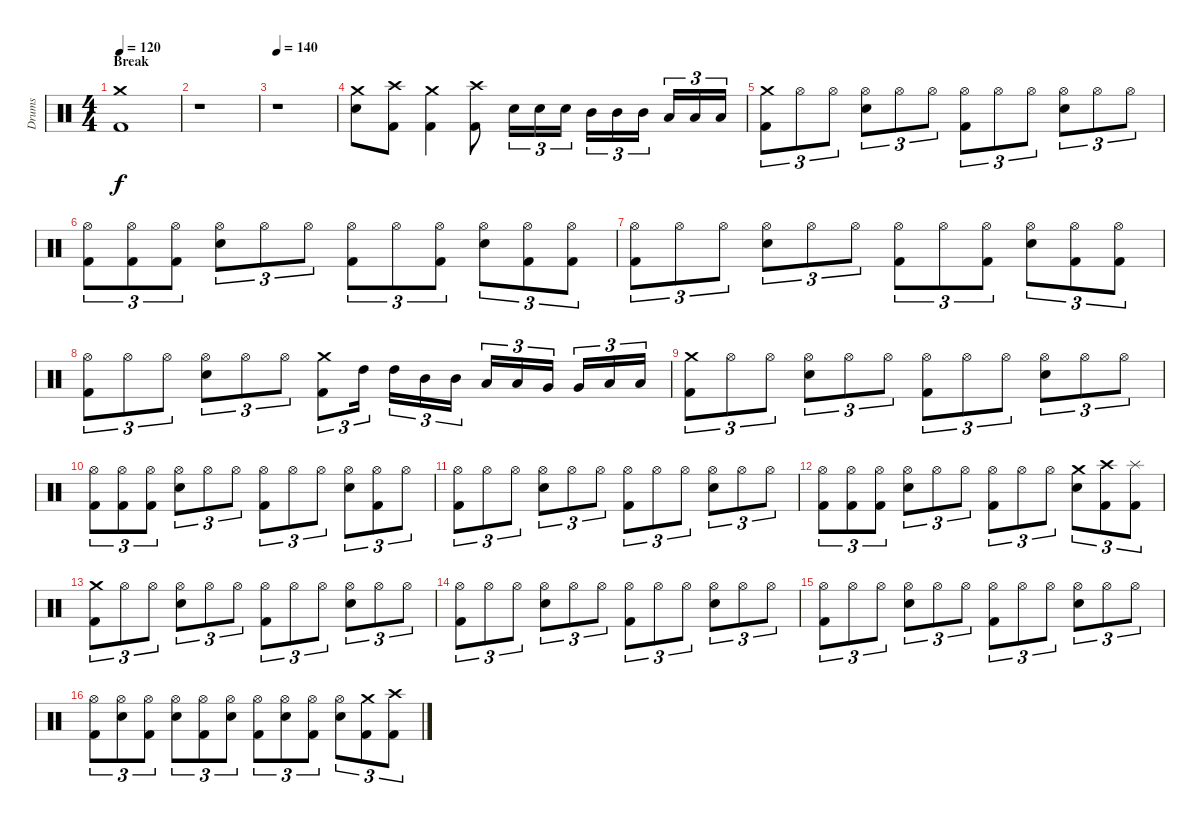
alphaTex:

\track ("Drums" "Drums") {instrument percussion}
\staff {score}
\articulation defaults
\ts (4 4)
\section ("" "Break")
\tempo 120
\clef neutral
\ks c
("Kick (hit) 2" "Crash medium (hit)").1{dy f} |
r.1 |
\tempo 140
r.1 |
("Electric Snare (hit)" "Crash medium (hit)").8 ("Kick (hit) 2" "Crash high (hit)").8 ("Kick (hit) 2" "Crash medium (hit)").4 ("Kick (hit) 2" "Crash high (hit)").8 "Electric Snare (hit)".16{tu (3 2)} "Electric Snare (hit)".16{tu (3 2)} "Electric Snare (hit)".16{tu (3 2)} "Mid Tom (hit)".16{tu (3 2)} "Mid Tom (hit)".16{tu (3 2)} "Mid Tom (hit)".16{tu (3 2)} "Low Tom (hit)".16{tu (3 2)} "Low Tom (hit)".16{tu (3 2)} "Low Tom (hit)".16{tu (3 2)} |
("Kick (hit) 2" "Crash medium (hit)").8{tu (3 2)} "Hi-Hat (open)".8{tu (3 2)} "Hi-Hat (open)".8{tu (3 2)} ("Electric Snare (hit)" "Hi-Hat (open)").8{tu (3 2)} "Hi-Hat (open)".8{tu (3 2)} "Hi-Hat (open)".8{tu (3 2)} ("Kick (hit) 2" "Hi-Hat (open)").8{tu (3 2)} "Hi-Hat (open)".8{tu (3 2)} "Hi-Hat (open)".8{tu (3 2)} ("Electric Snare (hit)" "Hi-Hat (open)").8{tu (3 2)} "Hi-Hat (open)".8{tu (3 2)} "Hi-Hat (open)".8{tu (3 2)} |
("Kick (hit) 2" "Hi-Hat (open)").8{tu (3 2)} ("Kick (hit) 2" "Hi-Hat (open)").8{tu (3 2)} ("Kick (hit) 2" "Hi-Hat (open)").8{tu (3 2)} ("Electric Snare (hit)" "Hi-Hat (open)").8{tu (3 2)} "Hi-Hat (open)".8{tu (3 2)} "Hi-Hat (open)".8{tu (3 2)} ("Kick (hit) 2" "Hi-Hat (open)").8{tu (3 2)} "Hi-Hat (open)".8{tu (3 2)} ("Kick (hit) 2" "Hi-Hat (open)").8{tu (3 2)} ("Electric Snare (hit)" "Hi-Hat (open)").8{tu (3 2)} ("Kick (hit) 2" "Hi-Hat (open)").8{tu (3 2)} ("Kick (hit) 2" "Hi-Hat (open)").8{tu (3 2)} |
("Kick (hit) 2" "Hi-Hat (open)").8{tu (3 2)} "Hi-Hat (open)".8{tu (3 2)} "Hi-Hat (open)".8{tu (3 2)} ("Electric Snare (hit)" "Hi-Hat (open)").8{tu (3 2)} "Hi-Hat (open)".8{tu (3 2)} "Hi-Hat (open)".8{tu (3 2)} ("Kick (hit) 2" "Hi-Hat (open)").8{tu (3 2)} "Hi-Hat (open)".8{tu (3 2)} ("Kick (hit) 2" "Hi-Hat (open)").8{tu (3 2)} ("Electric Snare (hit)" "Hi-Hat (open)").8{tu (3 2)} ("Kick (hit) 2" "Hi-Hat (open)").8{tu (3 2)} ("Kick (hit) 2" "Hi-Hat (open)").8{tu (3 2)} |
("Kick (hit) 2" "Hi-Hat (open)").8{tu (3 2)} "Hi-Hat (open)".8{tu (3 2)} "Hi-Hat (open)".8{tu (3 2)} ("Electric Snare (hit)" "Hi-Hat (open)").8{tu (3 2)} "Hi-Hat (open)".8{tu (3 2)} "Hi-Hat (open)".8{tu (3 2)} ("Kick (hit) 2" "Crash medium (hit)").8{tu (3 2)} "High Tom (hit)".16{tu (3 2)} "High Tom (hit)".16{tu (3 2)} "Mid Tom (hit)".16{tu (3 2)} "Mid Tom (hit)".16{tu (3 2)} "Low Tom (hit)".16{tu (3 2)} "Low Tom (hit)".16{tu (3 2)} "Very Low Tom (hit)".16{tu (3 2)} "Very Low Tom (hit)".16{tu (3 2)} "Low Floor Tom (hit)".16{tu (3 2)} "Low Floor Tom (hit)".16{tu (3 2)} |
("Kick (hit) 2" "Crash medium (hit)").8{tu (3 2)} "Hi-Hat (open)".8{tu (3 2)} "Hi-Hat (open)".8{tu (3 2)} ("Electric Snare (hit)" "Hi-Hat (open)").8{tu (3 2)} "Hi-Hat (open)".8{tu (3 2)} "Hi-Hat (open)".8{tu (3 2)} ("Kick (hit) 2" "Hi-Hat (open)").8{tu (3 2)} "Hi-Hat (open)".8{tu (3 2)} "Hi-Hat (open)".8{tu (3 2)} ("Electric Snare (hit)" "Hi-Hat (open)").8{tu (3 2)} "Hi-Hat (open)".8{tu (3 2)} "Hi-Hat (open)".8{tu (3 2)} |
("Kick (hit) 2" "Hi-Hat (open)").8{tu (3 2)} ("Kick (hit) 2" "Hi-Hat (open)").8{tu (3 2)} ("Kick (hit) 2" "Hi-Hat (open)").8{tu (3 2)} ("Electric Snare (hit)" "Hi-Hat (open)").8{tu (3 2)} "Hi-Hat (open)".8{tu (3 2)} "Hi-Hat (open)".8{tu (3 2)} ("Kick (hit) 2" "Hi-Hat (open)").8{tu (3 2)} "Hi-Hat (open)".8{tu (3 2)} "Hi-Hat (open)".8{tu (3 2)} ("Electric Snare (hit)" "Hi-Hat (open)").8{tu (3 2)} ("Kick (hit) 2" "Hi-Hat (open)").8{tu (3 2)} "Hi-Hat (open)".8{tu (3 2)} |
("Kick (hit) 2" "Hi-Hat (open)").8{tu (3 2)} "Hi-Hat (open)".8{tu (3 2)} "Hi-Hat (open)".8{tu (3 2)} ("Electric Snare (hit)" "Hi-Hat (open)").8{tu (3 2)} "Hi-Hat (open)".8{tu (3 2)} "Hi-Hat (open)".8{tu (3 2)} ("Kick (hit) 2" "Hi-Hat (open)").8{tu (3 2)} "Hi-Hat (open)".8{tu (3 2)} "Hi-Hat (open)".8{tu (3 2)} ("Electric Snare (hit)" "Hi-Hat (open)").8{tu (3 2)} "Hi-Hat (open)".8{tu (3 2)} "Hi-Hat (open)".8{tu (3 2)} |
("Kick (hit) 2" "Hi-Hat (open)").8{tu (3 2)} ("Kick (hit) 2" "Hi-Hat (open)").8{tu (3 2)} ("Kick (hit) 2" "Hi-Hat (open)").8{tu (3 2)} ("Electric Snare (hit)" "Hi-Hat (open)").8{tu (3 2)} "Hi-Hat (open)".8{tu (3 2)} "Hi-Hat (open)".8{tu (3 2)} ("Kick (hit) 2" "Hi-Hat (open)").8{tu (3 2)} "Hi-Hat (open)".8{tu (3 2)} "Hi-Hat (open)".8{tu (3 2)} ("Electric Snare (hit)" "Crash medium (hit)").8{tu (3 2)} ("Kick (hit) 2" "Crash high (hit)").8{tu (3 2)} ("Kick (hit) 2" "Splash (hit)").8{tu (3 2)} |
("Kick (hit) 2" "Crash medium (hit)").8{tu (3 2)} "Hi-Hat (open)".8{tu (3 2)} "Hi-Hat (open)".8{tu (3 2)} ("Electric Snare (hit)" "Hi-Hat (open)").8{tu (3 2)} "Hi-Hat (open)".8{tu (3 2)} "Hi-Hat (open)".8{tu (3 2)} ("Kick (hit) 2" "Hi-Hat (open)").8{tu (3 2)} "Hi-Hat (open)".8{tu (3 2)} "Hi-Hat (open)".8{tu (3 2)} ("Electric Snare (hit)" "Hi-Hat (open)").8{tu (3 2)} "Hi-Hat (open)".8{tu (3 2)} "Hi-Hat (open)".8{tu (3 2)} |
("Kick (hit) 2" "Hi-Hat (open)").8{tu (3 2)} "Hi-Hat (open)".8{tu (3 2)} "Hi-Hat (open)".8{tu (3 2)} ("Electric Snare (hit)" "Hi-Hat (open)").8{tu (3 2)} "Hi-Hat (open)".8{tu (3 2)} "Hi-Hat (open)".8{tu (3 2)} ("Kick (hit) 2" "Hi-Hat (open)").8{tu (3 2)} "Hi-Hat (open)".8{tu (3 2)} "Hi-Hat (open)".8{tu (3 2)} ("Electric Snare (hit)" "Hi-Hat (open)").8{tu (3 2)} "Hi-Hat (open)".8{tu (3 2)} "Hi-Hat (open)".8{tu (3 2)} |
("Kick (hit) 2" "Hi-Hat (open)").8{tu (3 2)} "Hi-Hat (open)".8{tu (3 2)} "Hi-Hat (open)".8{tu (3 2)} ("Electric Snare (hit)" "Hi-Hat (open)").8{tu (3 2)} "Hi-Hat (open)".8{tu (3 2)} "Hi-Hat (open)".8{tu (3 2)} ("Kick (hit) 2" "Hi-Hat (open)").8{tu (3 2)} "Hi-Hat (open)".8{tu (3 2)} "Hi-Hat (open)".8{tu (3 2)} ("Electric Snare (hit)" "Hi-Hat (open)").8{tu (3 2)} "Hi-Hat (open)".8{tu (3 2)} "Hi-Hat (open)".8{tu (3 2)} |
("Kick (hit) 2" "Hi-Hat (open)").8{tu (3 2)} ("Electric Snare (hit)" "Hi-Hat (open)").8{tu (3 2)} ("Kick (hit) 2" "Hi-Hat (open)").8{tu (3 2)} ("Electric Snare (hit)" "Hi-Hat (open)").8{tu (3 2)} ("Kick (hit) 2" "Hi-Hat (open)").8{tu (3 2)} ("Electric Snare (hit)" "Hi-Hat (open)").8{tu (3 2)} ("Kick (hit) 2" "Hi-Hat (open)").8{tu (3 2)} ("Electric Snare (hit)" "Hi-Hat (open)").8{tu (3 2)} ("Kick (hit) 2" "Hi-Hat (open)").8{tu (3 2)} ("Electric Snare (hit)" "Hi-Hat (open)").8{tu (3 2)} ("Kick (hit) 2" "Crash medium (hit)").8{tu (3 2)} ("Kick (hit) 2" "Crash high (hit)").8{tu (3 2)}
